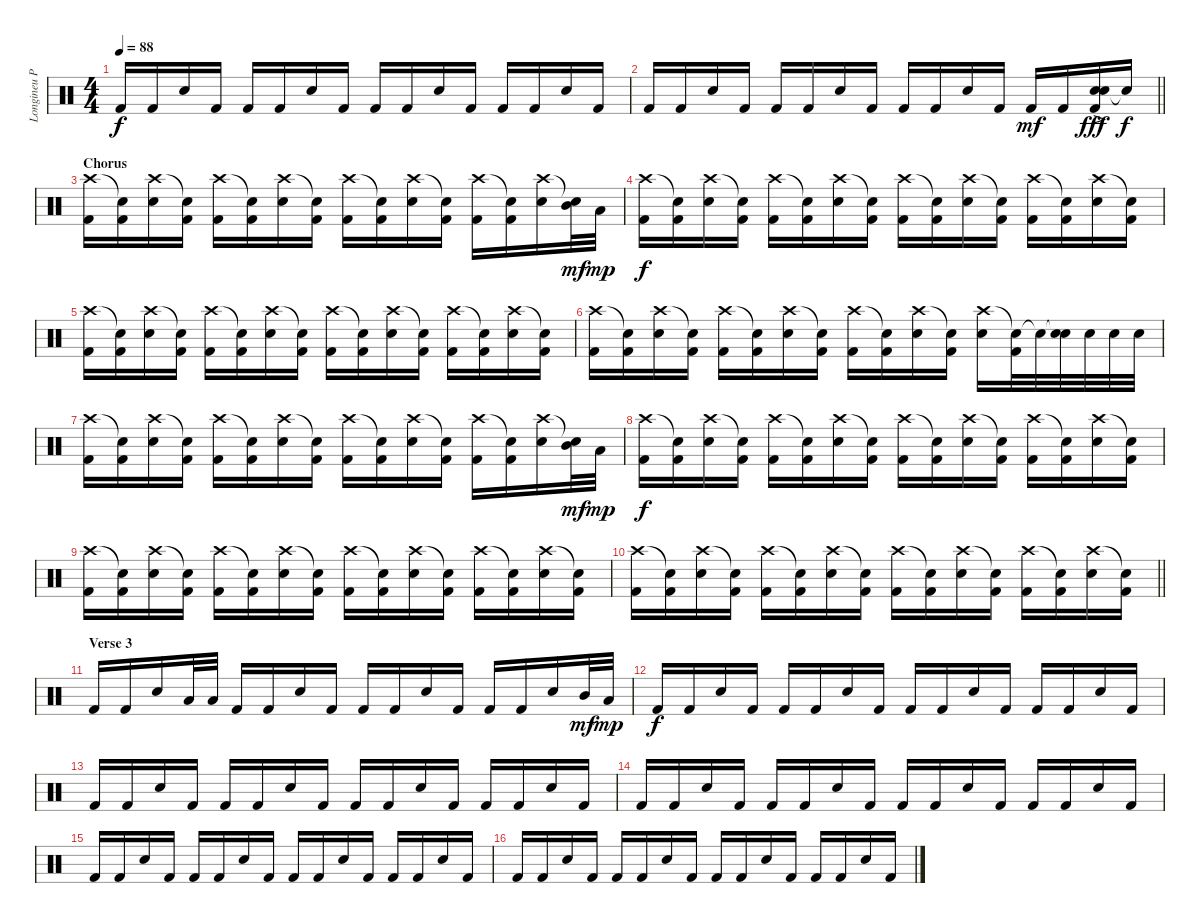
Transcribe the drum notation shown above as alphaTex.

\track ("Longineu Parsons ||| (Drums)" "Longineu P") {instrument percussion}
\staff {score}
\articulation defaults
\ts (4 4)
\tempo 88
\clef neutral
\ks c "Kick (hit) 2".16{dy f} "Kick (hit) 2".16 "Electric Snare (hit)".16 "Kick (hit) 2".16 "Kick (hit) 2".16 "Kick (hit) 2".16 "Electric Snare (hit)".16 "Kick (hit) 2".16 "Kick (hit) 2".16 "Kick (hit) 2".16 "Electric Snare (hit)".16 "Kick (hit) 2".16 "Kick (hit) 2".16 "Kick (hit) 2".16 "Electric Snare (hit)".16 "Kick (hit) 2".16
|
\barLineRight lightlight "Kick (hit) 2".16 "Kick (hit) 2".16 "Electric Snare (hit)".16 "Kick (hit) 2".16 "Kick (hit) 2".16 "Kick (hit) 2".16 "Electric Snare (hit)".16 "Kick (hit) 2".16 "Kick (hit) 2".16 "Kick (hit) 2".16 "Electric Snare (hit)".16 "Kick (hit) 2".16 "Kick (hit) 2".16{dy mf} "Kick (hit) 2".16
("Snare (hit) 2" "Electric Snare (hit)"{ac} "Kick (hit) 2").16{dy fff} "Snare (hit)"{t}.16{dy f} |
\section ("" "Chorus")
("Crash high (hit)" "Kick (hit) 2").16 ("Snare (hit)"{t} "Kick (hit) 2").16 ("Crash high (hit)" "Electric Snare (hit)").16 ("Snare (hit)"{t} "Kick (hit) 2").16 ("Crash high (hit)" "Kick (hit) 2").16 ("Snare (hit)"{t} "Kick (hit) 2").16 ("Crash high (hit)" "Electric Snare (hit)").16 ("Snare (hit)"{t} "Kick (hit) 2").16 ("Crash high (hit)" "Kick (hit) 2").16 ("Snare (hit)"{t} "Kick (hit) 2").16 ("Crash high (hit)" "Electric Snare (hit)").16 ("Snare (hit)"{t} "Kick (hit) 2").16 ("Crash high (hit)" "Kick (hit) 2").16 ("Snare (hit)"{t} "Kick (hit) 2").16 ("Crash high (hit)" "Electric Snare (hit)").16 ("Snare (hit)"{t} "Mid Tom (hit)").32{dy mf} "Low Tom (hit)".32{dy mp} |
("Crash high (hit)" "Kick (hit) 2").16{dy f} ("Snare (hit)"{t} "Kick (hit) 2").16 ("Crash high (hit)" "Electric Snare (hit)").16 ("Snare (hit)"{t} "Kick (hit) 2").16 ("Crash high (hit)" "Kick (hit) 2").16 ("Snare (hit)"{t} "Kick (hit) 2").16 ("Crash high (hit)" "Electric Snare (hit)").16 ("Snare (hit)"{t} "Kick (hit) 2").16 ("Crash high (hit)" "Kick (hit) 2").16 ("Snare (hit)"{t} "Kick (hit) 2").16 ("Crash high (hit)" "Electric Snare (hit)").16 ("Snare (hit)"{t} "Kick (hit) 2").16 ("Crash high (hit)" "Kick (hit) 2").16 ("Snare (hit)"{t} "Kick (hit) 2").16 ("Crash high (hit)" "Electric Snare (hit)").16 ("Snare (hit)"{t} "Kick (hit) 2").16 |
("Crash high (hit)" "Kick (hit) 2").16 ("Snare (hit)"{t} "Kick (hit) 2").16 ("Crash high (hit)" "Electric Snare (hit)").16 ("Snare (hit)"{t} "Kick (hit) 2").16 ("Crash high (hit)" "Kick (hit) 2").16 ("Snare (hit)"{t} "Kick (hit) 2").16 ("Crash high (hit)" "Electric Snare (hit)").16 ("Snare (hit)"{t} "Kick (hit) 2").16 ("Crash high (hit)" "Kick (hit) 2").16 ("Snare (hit)"{t} "Kick (hit) 2").16 ("Crash high (hit)" "Electric Snare (hit)").16 ("Snare (hit)"{t} "Kick (hit) 2").16 ("Crash high (hit)" "Kick (hit) 2").16 ("Snare (hit)"{t} "Kick (hit) 2").16 ("Crash high (hit)" "Electric Snare (hit)").16 ("Snare (hit)"{t} "Kick (hit) 2").16 |
("Crash high (hit)" "Kick (hit) 2").16 ("Snare (hit)"{t} "Kick (hit) 2").16 ("Crash high (hit)" "Electric Snare (hit)").16 ("Snare (hit)"{t} "Kick (hit) 2").16 ("Crash high (hit)" "Kick (hit) 2").16 ("Snare (hit)"{t} "Kick (hit) 2").16 ("Crash high (hit)" "Electric Snare (hit)").16 ("Snare (hit)"{t} "Kick (hit) 2").16 ("Crash high (hit)" "Kick (hit) 2").16 ("Snare (hit)"{t} "Kick (hit) 2").16 ("Crash high (hit)" "Electric Snare (hit)").16 ("Snare (hit)"{t} "Kick (hit) 2").16 ("Crash high (hit)" "Snare (hit) 2").16 ("Snare (hit)"{t} "Kick (hit) 2").32 "Electric Snare (hit)"{t}.32 ("Snare (hit)"{t} "Electric Snare (hit)").32 "Electric Snare (hit)".32 "Electric Snare (hit)".32 "Electric Snare (hit)".32 |
("Crash high (hit)" "Kick (hit) 2").16 ("Snare (hit)"{t} "Kick (hit) 2").16 ("Crash high (hit)" "Electric Snare (hit)").16 ("Snare (hit)"{t} "Kick (hit) 2").16 ("Crash high (hit)" "Kick (hit) 2").16 ("Snare (hit)"{t} "Kick (hit) 2").16 ("Crash high (hit)" "Electric Snare (hit)").16 ("Snare (hit)"{t} "Kick (hit) 2").16 ("Crash high (hit)" "Kick (hit) 2").16 ("Snare (hit)"{t} "Kick (hit) 2").16 ("Crash high (hit)" "Electric Snare (hit)").16 ("Snare (hit)"{t} "Kick (hit) 2").16 ("Crash high (hit)" "Kick (hit) 2").16 ("Snare (hit)"{t} "Kick (hit) 2").16 ("Crash high (hit)" "Electric Snare (hit)").16 ("Snare (hit)"{t} "Mid Tom (hit)").32{dy mf} "Low Tom (hit)".32{dy mp} |
("Crash high (hit)" "Kick (hit) 2").16{dy f} ("Snare (hit)"{t} "Kick (hit) 2").16 ("Crash high (hit)" "Electric Snare (hit)").16 ("Snare (hit)"{t} "Kick (hit) 2").16 ("Crash high (hit)" "Kick (hit) 2").16 ("Snare (hit)"{t} "Kick (hit) 2").16 ("Crash high (hit)" "Electric Snare (hit)").16 ("Snare (hit)"{t} "Kick (hit) 2").16 ("Crash high (hit)" "Kick (hit) 2").16 ("Snare (hit)"{t} "Kick (hit) 2").16 ("Crash high (hit)" "Electric Snare (hit)").16 ("Snare (hit)"{t} "Kick (hit) 2").16 ("Crash high (hit)" "Kick (hit) 2").16 ("Snare (hit)"{t} "Kick (hit) 2").16 ("Crash high (hit)" "Electric Snare (hit)").16 ("Snare (hit)"{t} "Kick (hit) 2").16 |
("Crash high (hit)" "Kick (hit) 2").16 ("Snare (hit)"{t} "Kick (hit) 2").16 ("Crash high (hit)" "Electric Snare (hit)").16 ("Snare (hit)"{t} "Kick (hit) 2").16 ("Crash high (hit)" "Kick (hit) 2").16 ("Snare (hit)"{t} "Kick (hit) 2").16 ("Crash high (hit)" "Electric Snare (hit)").16 ("Snare (hit)"{t} "Kick (hit) 2").16 ("Crash high (hit)" "Kick (hit) 2").16 ("Snare (hit)"{t} "Kick (hit) 2").16 ("Crash high (hit)" "Electric Snare (hit)").16 ("Snare (hit)"{t} "Kick (hit) 2").16 ("Crash high (hit)" "Kick (hit) 2").16 ("Snare (hit)"{t} "Kick (hit) 2").16 ("Crash high (hit)" "Electric Snare (hit)").16 ("Snare (hit)"{t} "Kick (hit) 2").16 |
\barLineRight lightlight
("Crash high (hit)" "Kick (hit) 2").16 ("Snare (hit)"{t} "Kick (hit) 2").16 ("Crash high (hit)" "Electric Snare (hit)").16 ("Snare (hit)"{t} "Kick (hit) 2").16 ("Crash high (hit)" "Kick (hit) 2").16 ("Snare (hit)"{t} "Kick (hit) 2").16 ("Crash high (hit)" "Electric Snare (hit)").16 ("Snare (hit)"{t} "Kick (hit) 2").16 ("Crash high (hit)" "Kick (hit) 2").16 ("Snare (hit)"{t} "Kick (hit) 2").16 ("Crash high (hit)" "Electric Snare (hit)").16 ("Snare (hit)"{t} "Kick (hit) 2").16 ("Crash high (hit)" "Kick (hit) 2").16 ("Snare (hit)"{t} "Kick (hit) 2").16 ("Crash high (hit)" "Electric Snare (hit)").16 ("Snare (hit)"{t} "Kick (hit) 2").16 |
\section ("" "Verse 3")
"Kick (hit) 2".16 "Kick (hit) 2".16 "Electric Snare (hit)".16 "Low Tom (hit)".32 "Low Floor Tom (hit)".32 "Kick (hit) 2".16 "Kick (hit) 2".16 "Electric Snare (hit)".16 "Kick (hit) 2".16 "Kick (hit) 2".16 "Kick (hit) 2".16 "Electric Snare (hit)".16 "Kick (hit) 2".16 "Kick (hit) 2".16 "Kick (hit) 2".16 "Electric Snare (hit)".16 "Mid Tom (hit)".32{dy mf} "Low Tom (hit)".32{dy mp} |
"Kick (hit) 2".16{dy f} "Kick (hit) 2".16 "Electric Snare (hit)".16 "Kick (hit) 2".16 "Kick (hit) 2".16 "Kick (hit) 2".16 "Electric Snare (hit)".16 "Kick (hit) 2".16 "Kick (hit) 2".16 "Kick (hit) 2".16 "Electric Snare (hit)".16 "Kick (hit) 2".16 "Kick (hit) 2".16 "Kick (hit) 2".16 "Electric Snare (hit)".16 "Kick (hit) 2".16 |
"Kick (hit) 2".16 "Kick (hit) 2".16 "Electric Snare (hit)".16 "Kick (hit) 2".16 "Kick (hit) 2".16 "Kick (hit) 2".16 "Electric Snare (hit)".16 "Kick (hit) 2".16 "Kick (hit) 2".16 "Kick (hit) 2".16 "Electric Snare (hit)".16 "Kick (hit) 2".16 "Kick (hit) 2".16 "Kick (hit) 2".16 "Electric Snare (hit)".16 "Kick (hit) 2".16 |
"Kick (hit) 2".16 "Kick (hit) 2".16 "Electric Snare (hit)".16 "Kick (hit) 2".16 "Kick (hit) 2".16 "Kick (hit) 2".16 "Electric Snare (hit)".16 "Kick (hit) 2".16 "Kick (hit) 2".16 "Kick (hit) 2".16 "Electric Snare (hit)".16 "Kick (hit) 2".16 "Kick (hit) 2".16 "Kick (hit) 2".16 "Electric Snare (hit)".16 "Kick (hit) 2".16 |
"Kick (hit) 2".16 "Kick (hit) 2".16 "Electric Snare (hit)".16 "Kick (hit) 2".16 "Kick (hit) 2".16 "Kick (hit) 2".16 "Electric Snare (hit)".16 "Kick (hit) 2".16 "Kick (hit) 2".16 "Kick (hit) 2".16 "Electric Snare (hit)".16 "Kick (hit) 2".16 "Kick (hit) 2".16 "Kick (hit) 2".16 "Electric Snare (hit)".16 "Kick (hit) 2".16 |
"Kick (hit) 2".16 "Kick (hit) 2".16 "Electric Snare (hit)".16 "Kick (hit) 2".16 "Kick (hit) 2".16 "Kick (hit) 2".16 "Electric Snare (hit)".16 "Kick (hit) 2".16 "Kick (hit) 2".16 "Kick (hit) 2".16 "Electric Snare (hit)".16 "Kick (hit) 2".16 "Kick (hit) 2".16 "Kick (hit) 2".16 "Electric Snare (hit)".16 "Kick (hit) 2".16
